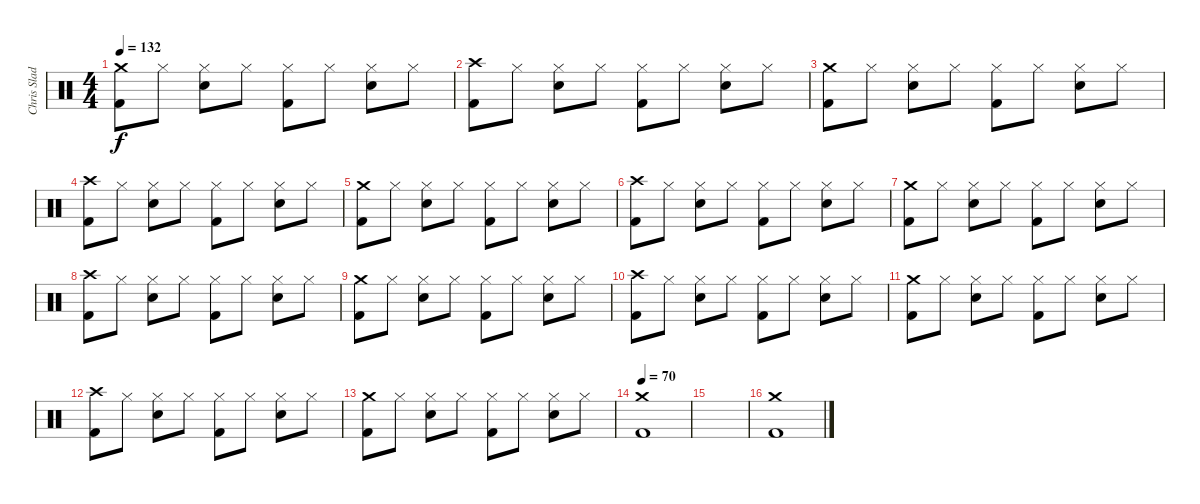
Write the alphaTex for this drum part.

\track ("Chris Slade" "Chris Slad") {instrument percussion}
\staff {score}
\articulation defaults
\ts (4 4)
\tempo 132
\clef neutral
\ks c
("Kick (hit) 2" "Crash medium (hit)").8{dy f} "Hi-Hat (closed)".8 ("Snare (hit) 2" "Hi-Hat (closed)").8 "Hi-Hat (closed)".8 ("Kick (hit) 2" "Hi-Hat (closed)").8 "Hi-Hat (closed)".8 ("Snare (hit) 2" "Hi-Hat (closed)").8 "Hi-Hat (closed)".8 |
("Kick (hit) 2" "Crash high (hit)").8 "Hi-Hat (closed)".8 ("Snare (hit) 2" "Hi-Hat (closed)").8 "Hi-Hat (closed)".8 ("Kick (hit) 2" "Hi-Hat (closed)").8 "Hi-Hat (closed)".8 ("Snare (hit) 2" "Hi-Hat (closed)").8 "Hi-Hat (closed)".8 |
("Kick (hit) 2" "Crash medium (hit)").8 "Hi-Hat (closed)".8 ("Snare (hit) 2" "Hi-Hat (closed)").8 "Hi-Hat (closed)".8 ("Kick (hit) 2" "Hi-Hat (closed)").8 "Hi-Hat (closed)".8 ("Snare (hit) 2" "Hi-Hat (closed)").8 "Hi-Hat (closed)".8 |
("Kick (hit) 2" "Crash high (hit)").8 "Hi-Hat (closed)".8 ("Snare (hit) 2" "Hi-Hat (closed)").8 "Hi-Hat (closed)".8 ("Kick (hit) 2" "Hi-Hat (closed)").8 "Hi-Hat (closed)".8 ("Snare (hit) 2" "Hi-Hat (closed)").8 "Hi-Hat (closed)".8 |
("Kick (hit) 2" "Crash medium (hit)").8 "Hi-Hat (closed)".8 ("Snare (hit) 2" "Hi-Hat (closed)").8 "Hi-Hat (closed)".8 ("Kick (hit) 2" "Hi-Hat (closed)").8 "Hi-Hat (closed)".8 ("Snare (hit) 2" "Hi-Hat (closed)").8 "Hi-Hat (closed)".8 |
("Kick (hit) 2" "Crash high (hit)").8 "Hi-Hat (closed)".8 ("Snare (hit) 2" "Hi-Hat (closed)").8 "Hi-Hat (closed)".8 ("Kick (hit) 2" "Hi-Hat (closed)").8 "Hi-Hat (closed)".8 ("Snare (hit) 2" "Hi-Hat (closed)").8 "Hi-Hat (closed)".8 |
("Kick (hit) 2" "Crash medium (hit)").8 "Hi-Hat (closed)".8 ("Snare (hit) 2" "Hi-Hat (closed)").8 "Hi-Hat (closed)".8 ("Kick (hit) 2" "Hi-Hat (closed)").8 "Hi-Hat (closed)".8 ("Snare (hit) 2" "Hi-Hat (closed)").8 "Hi-Hat (closed)".8 |
("Kick (hit) 2" "Crash high (hit)").8 "Hi-Hat (closed)".8 ("Snare (hit) 2" "Hi-Hat (closed)").8 "Hi-Hat (closed)".8 ("Kick (hit) 2" "Hi-Hat (closed)").8 "Hi-Hat (closed)".8 ("Snare (hit) 2" "Hi-Hat (closed)").8 "Hi-Hat (closed)".8 |
("Kick (hit) 2" "Crash medium (hit)").8 "Hi-Hat (closed)".8 ("Snare (hit) 2" "Hi-Hat (closed)").8 "Hi-Hat (closed)".8 ("Kick (hit) 2" "Hi-Hat (closed)").8 "Hi-Hat (closed)".8 ("Snare (hit) 2" "Hi-Hat (closed)").8 "Hi-Hat (closed)".8 |
("Kick (hit) 2" "Crash high (hit)").8 "Hi-Hat (closed)".8 ("Snare (hit) 2" "Hi-Hat (closed)").8 "Hi-Hat (closed)".8 ("Kick (hit) 2" "Hi-Hat (closed)").8 "Hi-Hat (closed)".8 ("Snare (hit) 2" "Hi-Hat (closed)").8 "Hi-Hat (closed)".8 |
("Kick (hit) 2" "Crash medium (hit)").8 "Hi-Hat (closed)".8 ("Snare (hit) 2" "Hi-Hat (closed)").8 "Hi-Hat (closed)".8 ("Kick (hit) 2" "Hi-Hat (closed)").8 "Hi-Hat (closed)".8 ("Snare (hit) 2" "Hi-Hat (closed)").8 "Hi-Hat (closed)".8 |
("Kick (hit) 2" "Crash high (hit)").8 "Hi-Hat (closed)".8 ("Snare (hit) 2" "Hi-Hat (closed)").8 "Hi-Hat (closed)".8 ("Kick (hit) 2" "Hi-Hat (closed)").8 "Hi-Hat (closed)".8 ("Snare (hit) 2" "Hi-Hat (closed)").8 "Hi-Hat (closed)".8 |
("Kick (hit) 2" "Crash medium (hit)").8 "Hi-Hat (closed)".8 ("Snare (hit) 2" "Hi-Hat (closed)").8 "Hi-Hat (closed)".8 ("Kick (hit) 2" "Hi-Hat (closed)").8 "Hi-Hat (closed)".8 ("Snare (hit) 2" "Hi-Hat (closed)").8 "Hi-Hat (closed)".8 |
\tempo 70
("Kick (hit) 2" "Crash medium (hit)").1 |
|
("Kick (hit) 2" "Crash medium (hit)").1
